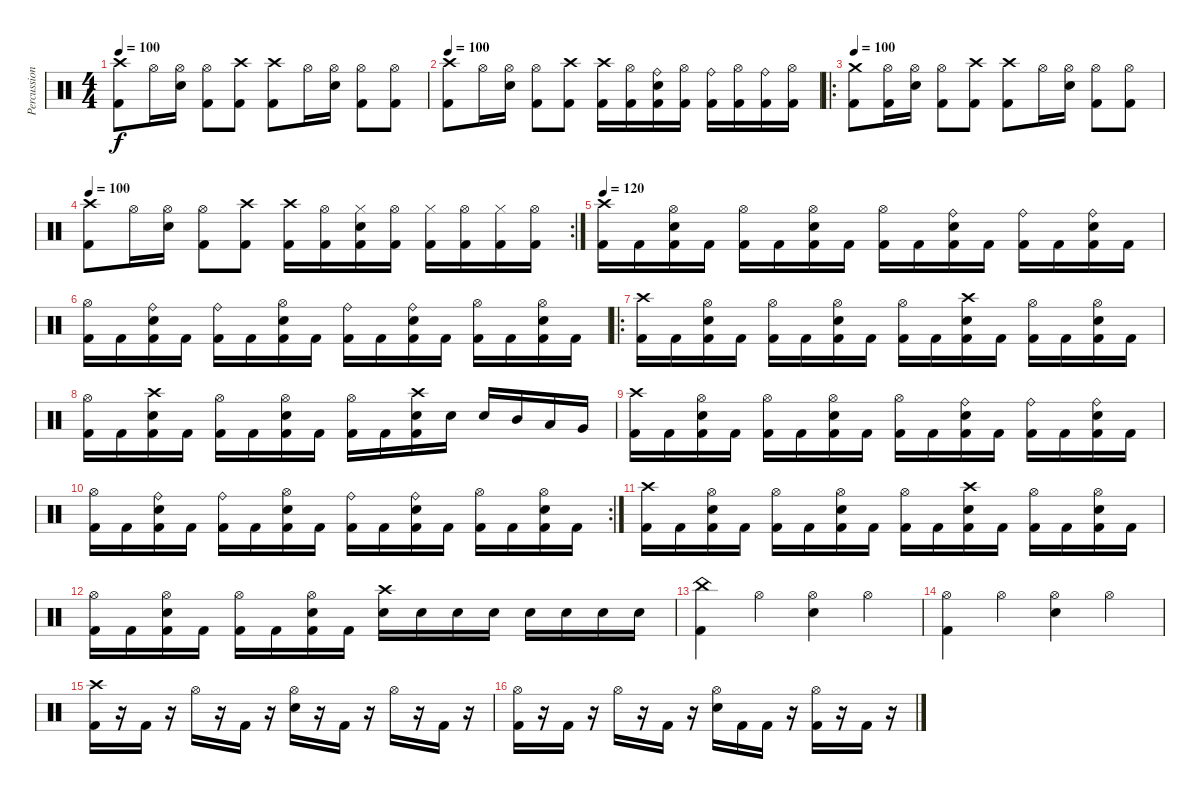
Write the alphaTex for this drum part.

\track ("Percussion" "Percussion") {instrument percussion}
\staff {score}
\articulation defaults
\ts (4 4)
\tempo 100
\clef neutral
\ks c
("Crash high (hit)" "Kick (hit) 2").8{dy f} "Hi-Hat (open)".16 ("Hi-Hat (open)" "Snare (hit) 2").16 ("Hi-Hat (open)" "Kick (hit) 2").8 ("Crash high (hit)" "Kick (hit) 2").8 ("Crash high (hit)" "Kick (hit) 2").8 "Hi-Hat (open)".16 ("Hi-Hat (open)" "Snare (hit) 2").16 ("Hi-Hat (open)" "Kick (hit) 2").8 ("Hi-Hat (open)" "Kick (hit) 2").8 |
\tempo 100
("Crash high (hit)" "Kick (hit) 2").8 "Hi-Hat (open)".16 ("Hi-Hat (open)" "Snare (hit) 2").16 ("Hi-Hat (open)" "Kick (hit) 2").8 ("Crash high (hit)" "Kick (hit) 2").8 ("Crash high (hit)" "Kick (hit) 2").16 ("Hi-Hat (open)" "Kick (hit) 2").16 ("Ride (bell)" "Snare (hit) 2" "Kick (hit) 2").16 ("Hi-Hat (open)" "Kick (hit) 2").16 ("Ride (bell)" "Kick (hit) 2").16 ("Hi-Hat (open)" "Kick (hit) 2").16 ("Ride (bell)" "Kick (hit) 2").16 ("Hi-Hat (open)" "Kick (hit) 2").16 |
\ro
\tempo 100
("Crash medium (hit)" "Kick (hit) 2").8 ("Hi-Hat (open)" "Kick (hit) 2").16 ("Hi-Hat (open)" "Snare (hit) 2").16 ("Hi-Hat (open)" "Kick (hit) 2").8 ("Crash high (hit)" "Kick (hit) 2").8 ("Crash high (hit)" "Kick (hit) 2").8 "Hi-Hat (open)".16 ("Hi-Hat (open)" "Snare (hit) 2").16 ("Hi-Hat (open)" "Kick (hit) 2").8 ("Hi-Hat (open)" "Kick (hit) 2").8 |
\rc 2
\tempo 100
("Crash high (hit)" "Kick (hit) 2").8 "Hi-Hat (open)".16 ("Hi-Hat (open)" "Snare (hit) 2").16 ("Hi-Hat (open)" "Kick (hit) 2").8 ("Crash high (hit)" "Kick (hit) 2").8 ("Crash high (hit)" "Kick (hit) 2").16 ("Hi-Hat (open)" "Kick (hit) 2").16 ("Hi-Hat (closed)" "Snare (hit) 2" "Kick (hit) 2").16 ("Hi-Hat (open)" "Kick (hit) 2").16 ("Hi-Hat (closed)" "Kick (hit) 2").16 ("Hi-Hat (open)" "Kick (hit) 2").16 ("Hi-Hat (closed)" "Kick (hit) 2").16 ("Hi-Hat (open)" "Kick (hit) 2").16 |
\tempo 120
("Crash high (hit)" "Kick (hit) 2").16 "Kick (hit) 2".16 ("Hi-Hat (open)" "Snare (hit) 2" "Kick (hit) 2").16 "Kick (hit) 2".16 ("Hi-Hat (open)" "Kick (hit) 2").16 "Kick (hit) 2".16 ("Hi-Hat (open)" "Snare (hit) 2" "Kick (hit) 2").16 "Kick (hit) 2".16 ("Hi-Hat (open)" "Kick (hit) 2").16 "Kick (hit) 2".16 ("Ride (bell)" "Snare (hit) 2" "Kick (hit) 2").16 "Kick (hit) 2".16 ("Ride (bell)" "Kick (hit) 2").16 "Kick (hit) 2".16 ("Ride (bell)" "Snare (hit) 2" "Kick (hit) 2").16 "Kick (hit) 2".16 |
("Hi-Hat (open)" "Kick (hit) 2").16 "Kick (hit) 2".16 ("Ride (bell)" "Snare (hit) 2" "Kick (hit) 2").16 "Kick (hit) 2".16 ("Ride (bell)" "Kick (hit) 2").16 "Kick (hit) 2".16 ("Hi-Hat (open)" "Snare (hit) 2" "Kick (hit) 2").16 "Kick (hit) 2".16 ("Ride (bell)" "Kick (hit) 2").16 "Kick (hit) 2".16 ("Ride (bell)" "Snare (hit) 2" "Kick (hit) 2").16 "Kick (hit) 2".16 ("Hi-Hat (open)" "Kick (hit) 2").16 "Kick (hit) 2".16 ("Hi-Hat (open)" "Snare (hit) 2" "Kick (hit) 2").16 "Kick (hit) 2".16 |
\ro
("Crash high (hit)" "Kick (hit) 2").16 "Kick (hit) 2".16 ("Hi-Hat (open)" "Snare (hit) 2" "Kick (hit) 2").16 "Kick (hit) 2".16 ("Hi-Hat (open)" "Kick (hit) 2").16 "Kick (hit) 2".16 ("Hi-Hat (open)" "Snare (hit) 2" "Kick (hit) 2").16 "Kick (hit) 2".16 ("Hi-Hat (open)" "Kick (hit) 2").16 "Kick (hit) 2".16 ("Crash high (hit)" "Snare (hit) 2" "Kick (hit) 2").16 "Kick (hit) 2".16 ("Hi-Hat (open)" "Kick (hit) 2").16 "Kick (hit) 2".16 ("Hi-Hat (open)" "Snare (hit) 2" "Kick (hit) 2").16 "Kick (hit) 2".16 |
("Hi-Hat (open)" "Kick (hit) 2").16 "Kick (hit) 2".16 ("Crash high (hit)" "Snare (hit) 2" "Kick (hit) 2").16 "Kick (hit) 2".16 ("Hi-Hat (open)" "Kick (hit) 2").16 "Kick (hit) 2".16 ("Hi-Hat (open)" "Snare (hit) 2" "Kick (hit) 2").16 "Kick (hit) 2".16 ("Hi-Hat (open)" "Kick (hit) 2").16 "Kick (hit) 2".16 ("Crash high (hit)" "Snare (hit) 2" "Kick (hit) 2").16 "Snare (hit) 2".16 "Snare (hit) 2".16 "Mid Tom (hit)".16 "Low Tom (hit)".16 "Very Low Tom (hit)".16 |
("Crash high (hit)" "Kick (hit) 2").16 "Kick (hit) 2".16 ("Hi-Hat (open)" "Snare (hit) 2" "Kick (hit) 2").16 "Kick (hit) 2".16 ("Hi-Hat (open)" "Kick (hit) 2").16 "Kick (hit) 2".16 ("Hi-Hat (open)" "Snare (hit) 2" "Kick (hit) 2").16 "Kick (hit) 2".16 ("Hi-Hat (open)" "Kick (hit) 2").16 "Kick (hit) 2".16 ("Ride (bell)" "Snare (hit) 2" "Kick (hit) 2").16 "Kick (hit) 2".16 ("Ride (bell)" "Kick (hit) 2").16 "Kick (hit) 2".16 ("Ride (bell)" "Snare (hit) 2" "Kick (hit) 2").16 "Kick (hit) 2".16 |
\rc 2
("Hi-Hat (open)" "Kick (hit) 2").16 "Kick (hit) 2".16 ("Ride (bell)" "Snare (hit) 2" "Kick (hit) 2").16 "Kick (hit) 2".16 ("Ride (bell)" "Kick (hit) 2").16 "Kick (hit) 2".16 ("Hi-Hat (open)" "Snare (hit) 2" "Kick (hit) 2").16 "Kick (hit) 2".16 ("Ride (bell)" "Kick (hit) 2").16 "Kick (hit) 2".16 ("Ride (bell)" "Snare (hit) 2" "Kick (hit) 2").16 "Kick (hit) 2".16 ("Hi-Hat (open)" "Kick (hit) 2").16 "Kick (hit) 2".16 ("Hi-Hat (open)" "Snare (hit) 2" "Kick (hit) 2").16 "Kick (hit) 2".16 |
("Crash high (hit)" "Kick (hit) 2").16 "Kick (hit) 2".16 ("Hi-Hat (open)" "Snare (hit) 2" "Kick (hit) 2").16 "Kick (hit) 2".16 ("Hi-Hat (open)" "Kick (hit) 2").16 "Kick (hit) 2".16 ("Hi-Hat (open)" "Snare (hit) 2" "Kick (hit) 2").16 "Kick (hit) 2".16 ("Hi-Hat (open)" "Kick (hit) 2").16 "Kick (hit) 2".16 ("Crash high (hit)" "Snare (hit) 2" "Kick (hit) 2").16 "Kick (hit) 2".16 ("Hi-Hat (open)" "Kick (hit) 2").16 "Kick (hit) 2".16 ("Hi-Hat (open)" "Snare (hit) 2" "Kick (hit) 2").16 "Kick (hit) 2".16 |
("Hi-Hat (open)" "Kick (hit) 2").16 "Kick (hit) 2".16 ("Hi-Hat (open)" "Snare (hit) 2" "Kick (hit) 2").16 "Kick (hit) 2".16 ("Hi-Hat (open)" "Kick (hit) 2").16 "Kick (hit) 2".16 ("Hi-Hat (open)" "Snare (hit) 2" "Kick (hit) 2").16 "Kick (hit) 2".16 ("Crash high (hit)" "Snare (hit) 2").16 "Snare (hit) 2".16 "Snare (hit) 2".16 "Snare (hit) 2".16 "Snare (hit) 2".16 "Snare (hit) 2".16 "Snare (hit) 2".16 "Snare (hit) 2".16 |
("China (hit)" "Kick (hit) 2").4 "Hi-Hat (open)".4 ("Hi-Hat (open)" "Snare (hit) 2").4 "Hi-Hat (open)".4 |
("Hi-Hat (open)" "Kick (hit) 2").4 "Hi-Hat (open)".4 ("Hi-Hat (open)" "Snare (hit) 2").4 "Hi-Hat (open)".4 |
("Crash high (hit)" "Kick (hit) 2").16 r.16 "Kick (hit) 2".16 r.16 "Hi-Hat (open)".16 r.16 "Kick (hit) 2".16 r.16 ("Hi-Hat (open)" "Snare (hit) 2").16 r.16 "Kick (hit) 2".16 r.16 "Hi-Hat (open)".16 r.16 "Kick (hit) 2".16 r.16 |
("Hi-Hat (open)" "Kick (hit) 2").16 r.16 "Kick (hit) 2".16 r.16 "Hi-Hat (open)".16 r.16 "Kick (hit) 2".16 r.16 ("Hi-Hat (open)" "Snare (hit) 2").16 "Kick (hit) 2".16 "Kick (hit) 2".16 r.16 ("Hi-Hat (open)" "Kick (hit) 2").16 r.16 "Kick (hit) 2".16 r.16
